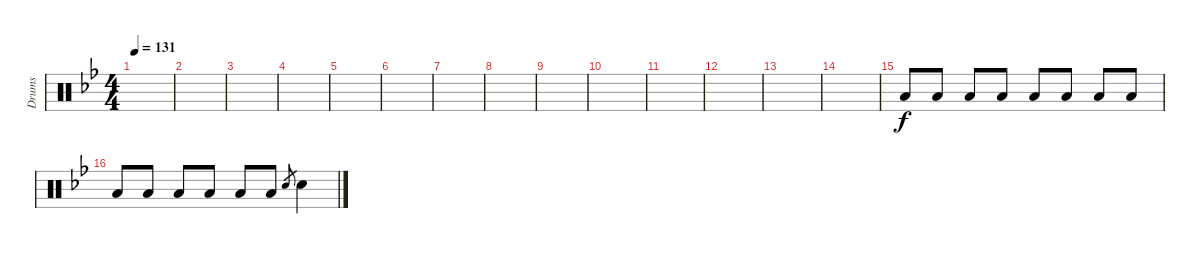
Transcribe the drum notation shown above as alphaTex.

\track ("Drums" "Drums") {instrument percussion}
\staff {score}
\articulation defaults
\ts (4 4)
\tempo 131
\clef neutral
\ks bb
|
|
|
|
|
|
|
|
|
|
|
|
|
|
"Low Tom (hit)".8{volume 13} "Low Tom (hit)".8 "Low Tom (hit)".8 "Low Tom (hit)".8 "Low Tom (hit)".8 "Low Tom (hit)".8 "Low Tom (hit)".8 "Low Tom (hit)".8 |
"Low Tom (hit)".8 "Low Tom (hit)".8 "Low Tom (hit)".8 "Low Tom (hit)".8 "Low Tom (hit)".8 "Low Tom (hit)".8 "Snare (hit) 2".8{gr} "Snare (hit) 2".4
